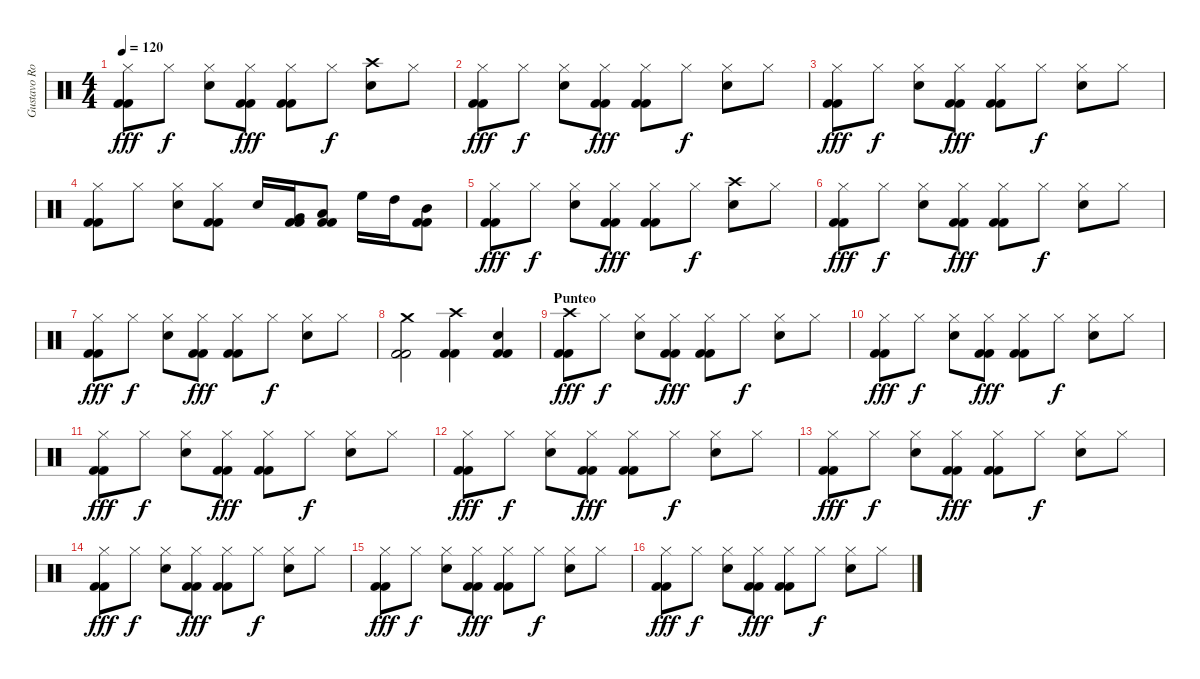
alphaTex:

\track ("Gustavo Rowek" "Gustavo Ro") {instrument percussion}
\staff {score}
\articulation defaults
\ts (4 4)
\tempo 120
\clef neutral
\ks c
("Kick (hit) 2" "Kick (hit) 2" "Hi-Hat (closed)").8{dy fff} "Hi-Hat (closed)".8{dy f} ("Snare (hit) 2" "Hi-Hat (closed)").8 ("Kick (hit) 2" "Kick (hit) 2" "Hi-Hat (closed)").8{dy fff} ("Kick (hit) 2" "Kick (hit) 2" "Hi-Hat (closed)").8 "Hi-Hat (closed)".8{dy f} ("Snare (hit) 2" "Crash high (hit)").8 "Hi-Hat (closed)".8 |
("Kick (hit) 2" "Kick (hit) 2" "Hi-Hat (closed)").8{dy fff} "Hi-Hat (closed)".8{dy f} ("Snare (hit) 2" "Hi-Hat (closed)").8 ("Kick (hit) 2" "Kick (hit) 2" "Hi-Hat (closed)").8{dy fff} ("Kick (hit) 2" "Kick (hit) 2" "Hi-Hat (closed)").8 "Hi-Hat (closed)".8{dy f} ("Snare (hit) 2" "Hi-Hat (closed)").8 "Hi-Hat (closed)".8 |
("Kick (hit) 2" "Kick (hit) 2" "Hi-Hat (closed)").8{dy fff} "Hi-Hat (closed)".8{dy f} ("Snare (hit) 2" "Hi-Hat (closed)").8 ("Kick (hit) 2" "Kick (hit) 2" "Hi-Hat (closed)").8{dy fff} ("Kick (hit) 2" "Kick (hit) 2" "Hi-Hat (closed)").8 "Hi-Hat (closed)".8{dy f} ("Snare (hit) 2" "Hi-Hat (closed)").8 "Hi-Hat (closed)".8 |
("Kick (hit) 2" "Kick (hit) 2" "Hi-Hat (closed)").8 "Hi-Hat (closed)".8 ("Snare (hit) 2" "Hi-Hat (closed)").8 ("Kick (hit) 2" "Kick (hit) 2" "Hi-Hat (closed)").8 "Snare (hit) 2".16 ("Kick (hit) 2" "Kick (hit) 2" "Very Low Tom (hit)").16 ("Kick (hit) 2" "Kick (hit) 2" "Low Floor Tom (hit)").8 "High Floor Tom (hit)".16 "High Tom (hit)".16 ("Kick (hit) 2" "Kick (hit) 2" "Mid Tom (hit)").8 |
("Kick (hit) 2" "Kick (hit) 2" "Hi-Hat (closed)").8{dy fff} "Hi-Hat (closed)".8{dy f} ("Snare (hit) 2" "Hi-Hat (closed)").8 ("Kick (hit) 2" "Kick (hit) 2" "Hi-Hat (closed)").8{dy fff} ("Kick (hit) 2" "Kick (hit) 2" "Hi-Hat (closed)").8 "Hi-Hat (closed)".8{dy f} ("Snare (hit) 2" "Crash high (hit)").8 "Hi-Hat (closed)".8 |
("Kick (hit) 2" "Kick (hit) 2" "Hi-Hat (closed)").8{dy fff} "Hi-Hat (closed)".8{dy f} ("Snare (hit) 2" "Hi-Hat (closed)").8 ("Kick (hit) 2" "Kick (hit) 2" "Hi-Hat (closed)").8{dy fff} ("Kick (hit) 2" "Kick (hit) 2" "Hi-Hat (closed)").8 "Hi-Hat (closed)".8{dy f} ("Snare (hit) 2" "Hi-Hat (closed)").8 "Hi-Hat (closed)".8 |
("Kick (hit) 2" "Kick (hit) 2" "Hi-Hat (closed)").8{dy fff} "Hi-Hat (closed)".8{dy f} ("Snare (hit) 2" "Hi-Hat (closed)").8 ("Kick (hit) 2" "Kick (hit) 2" "Hi-Hat (closed)").8{dy fff} ("Kick (hit) 2" "Kick (hit) 2" "Hi-Hat (closed)").8 "Hi-Hat (closed)".8{dy f} ("Snare (hit) 2" "Hi-Hat (closed)").8 "Hi-Hat (closed)".8 |
("Kick (hit) 2" "Kick (hit) 2" "Crash medium (hit)").2 ("Kick (hit) 2" "Kick (hit) 2" "Crash high (hit)").4 ("Kick (hit) 2" "Kick (hit) 2" "Snare (hit) 2").4 |
\section ("" "Punteo")
("Kick (hit) 2" "Kick (hit) 2" "Crash high (hit)").8{dy fff} "Hi-Hat (closed)".8{dy f} ("Snare (hit) 2" "Hi-Hat (closed)").8 ("Kick (hit) 2" "Kick (hit) 2" "Hi-Hat (closed)").8{dy fff} ("Kick (hit) 2" "Kick (hit) 2" "Hi-Hat (closed)").8 "Hi-Hat (closed)".8{dy f} ("Snare (hit) 2" "Hi-Hat (closed)").8 "Hi-Hat (closed)".8 |
("Kick (hit) 2" "Kick (hit) 2" "Hi-Hat (closed)").8{dy fff} "Hi-Hat (closed)".8{dy f} ("Snare (hit) 2" "Hi-Hat (closed)").8 ("Kick (hit) 2" "Kick (hit) 2" "Hi-Hat (closed)").8{dy fff} ("Kick (hit) 2" "Kick (hit) 2" "Hi-Hat (closed)").8 "Hi-Hat (closed)".8{dy f} ("Snare (hit) 2" "Hi-Hat (closed)").8 "Hi-Hat (closed)".8 |
("Kick (hit) 2" "Kick (hit) 2" "Hi-Hat (closed)").8{dy fff} "Hi-Hat (closed)".8{dy f} ("Snare (hit) 2" "Hi-Hat (closed)").8 ("Kick (hit) 2" "Kick (hit) 2" "Hi-Hat (closed)").8{dy fff} ("Kick (hit) 2" "Kick (hit) 2" "Hi-Hat (closed)").8 "Hi-Hat (closed)".8{dy f} ("Snare (hit) 2" "Hi-Hat (closed)").8 "Hi-Hat (closed)".8 |
("Kick (hit) 2" "Kick (hit) 2" "Hi-Hat (closed)").8{dy fff} "Hi-Hat (closed)".8{dy f} ("Snare (hit) 2" "Hi-Hat (closed)").8 ("Kick (hit) 2" "Kick (hit) 2" "Hi-Hat (closed)").8{dy fff} ("Kick (hit) 2" "Kick (hit) 2" "Hi-Hat (closed)").8 "Hi-Hat (closed)".8{dy f} ("Snare (hit) 2" "Hi-Hat (closed)").8 "Hi-Hat (closed)".8 |
("Kick (hit) 2" "Kick (hit) 2" "Hi-Hat (closed)").8{dy fff} "Hi-Hat (closed)".8{dy f} ("Snare (hit) 2" "Hi-Hat (closed)").8 ("Kick (hit) 2" "Kick (hit) 2" "Hi-Hat (closed)").8{dy fff} ("Kick (hit) 2" "Kick (hit) 2" "Hi-Hat (closed)").8 "Hi-Hat (closed)".8{dy f} ("Snare (hit) 2" "Hi-Hat (closed)").8 "Hi-Hat (closed)".8 |
("Kick (hit) 2" "Kick (hit) 2" "Hi-Hat (closed)").8{dy fff} "Hi-Hat (closed)".8{dy f} ("Snare (hit) 2" "Hi-Hat (closed)").8 ("Kick (hit) 2" "Kick (hit) 2" "Hi-Hat (closed)").8{dy fff} ("Kick (hit) 2" "Kick (hit) 2" "Hi-Hat (closed)").8 "Hi-Hat (closed)".8{dy f} ("Snare (hit) 2" "Hi-Hat (closed)").8 "Hi-Hat (closed)".8 |
("Kick (hit) 2" "Kick (hit) 2" "Hi-Hat (closed)").8{dy fff} "Hi-Hat (closed)".8{dy f} ("Snare (hit) 2" "Hi-Hat (closed)").8 ("Kick (hit) 2" "Kick (hit) 2" "Hi-Hat (closed)").8{dy fff} ("Kick (hit) 2" "Kick (hit) 2" "Hi-Hat (closed)").8 "Hi-Hat (closed)".8{dy f} ("Snare (hit) 2" "Hi-Hat (closed)").8 "Hi-Hat (closed)".8 |
("Kick (hit) 2" "Kick (hit) 2" "Hi-Hat (closed)").8{dy fff} "Hi-Hat (closed)".8{dy f} ("Snare (hit) 2" "Hi-Hat (closed)").8 ("Kick (hit) 2" "Kick (hit) 2" "Hi-Hat (closed)").8{dy fff} ("Kick (hit) 2" "Kick (hit) 2" "Hi-Hat (closed)").8 "Hi-Hat (closed)".8{dy f} ("Snare (hit) 2" "Hi-Hat (closed)").8 "Hi-Hat (closed)".8
